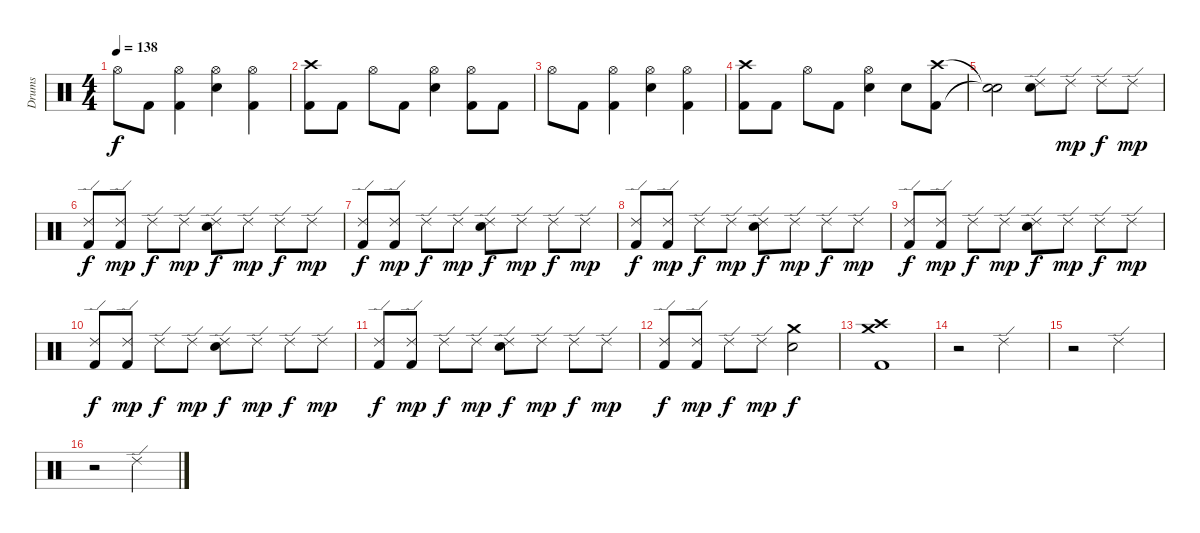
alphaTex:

\track ("Drums" "Drums") {instrument percussion}
\staff {score}
\articulation defaults
\ts (4 4)
\tempo 138
\clef neutral
\ks c "Hi-Hat (open)".8{dy f} "Kick (hit) 2".8
("Hi-Hat (open)" "Kick (hit) 2").4 ("Hi-Hat (open)" "Electric Snare (hit)").4 ("Hi-Hat (open)" "Kick (hit) 2").4 |
("Crash high (hit)" "Kick (hit) 2").8 "Kick (hit) 2".8 "Hi-Hat (open)".8 "Kick (hit) 2".8 ("Hi-Hat (open)" "Electric Snare (hit)").4 ("Hi-Hat (open)" "Kick (hit) 2").8 "Kick (hit) 2".8 |
"Hi-Hat (open)".8 "Kick (hit) 2".8 ("Hi-Hat (open)" "Kick (hit) 2").4 ("Hi-Hat (open)" "Electric Snare (hit)").4 ("Hi-Hat (open)" "Kick (hit) 2").4 |
("Crash high (hit)" "Kick (hit) 2").8 "Kick (hit) 2".8 "Hi-Hat (open)".8 "Kick (hit) 2".8 ("Hi-Hat (open)" "Electric Snare (hit)").4 "Electric Snare (hit)".8 ("Crash high (hit)" "Kick (hit) 2").8 |
("Snare (hit)"{t} "Snare (hit)"{t}).2 ("Ride (edge) 2" "Electric Snare (hit)").8 "Ride (edge) 2".8{dy mp} "Ride (edge) 2".8{dy f} "Ride (edge) 2".8{dy mp} |
("Ride (edge) 2" "Kick (hit) 2").8{dy f} ("Ride (edge) 2" "Kick (hit) 2").8{dy mp} "Ride (edge) 2".8{dy f} "Ride (edge) 2".8{dy mp} ("Ride (edge) 2" "Electric Snare (hit)").8{dy f} "Ride (edge) 2".8{dy mp} "Ride (edge) 2".8{dy f} "Ride (edge) 2".8{dy mp} |
("Ride (edge) 2" "Kick (hit) 2").8{dy f} ("Ride (edge) 2" "Kick (hit) 2").8{dy mp} "Ride (edge) 2".8{dy f} "Ride (edge) 2".8{dy mp} ("Ride (edge) 2" "Electric Snare (hit)").8{dy f} "Ride (edge) 2".8{dy mp} "Ride (edge) 2".8{dy f} "Ride (edge) 2".8{dy mp} |
("Ride (edge) 2" "Kick (hit) 2").8{dy f} ("Ride (edge) 2" "Kick (hit) 2").8{dy mp} "Ride (edge) 2".8{dy f} "Ride (edge) 2".8{dy mp} ("Ride (edge) 2" "Electric Snare (hit)").8{dy f} "Ride (edge) 2".8{dy mp} "Ride (edge) 2".8{dy f} "Ride (edge) 2".8{dy mp} |
("Ride (edge) 2" "Kick (hit) 2").8{dy f} ("Ride (edge) 2" "Kick (hit) 2").8{dy mp} "Ride (edge) 2".8{dy f} "Ride (edge) 2".8{dy mp} ("Ride (edge) 2" "Electric Snare (hit)").8{dy f} "Ride (edge) 2".8{dy mp} "Ride (edge) 2".8{dy f} "Ride (edge) 2".8{dy mp} |
("Ride (edge) 2" "Kick (hit) 2").8{dy f} ("Ride (edge) 2" "Kick (hit) 2").8{dy mp} "Ride (edge) 2".8{dy f} "Ride (edge) 2".8{dy mp} ("Ride (edge) 2" "Electric Snare (hit)").8{dy f} "Ride (edge) 2".8{dy mp} "Ride (edge) 2".8{dy f} "Ride (edge) 2".8{dy mp} |
("Ride (edge) 2" "Kick (hit) 2").8{dy f} ("Ride (edge) 2" "Kick (hit) 2").8{dy mp} "Ride (edge) 2".8{dy f} "Ride (edge) 2".8{dy mp} ("Ride (edge) 2" "Electric Snare (hit)").8{dy f} "Ride (edge) 2".8{dy mp} "Ride (edge) 2".8{dy f} "Ride (edge) 2".8{dy mp} |
("Ride (edge) 2" "Kick (hit) 2").8{dy f} ("Ride (edge) 2" "Kick (hit) 2").8{dy mp} "Ride (edge) 2".8{dy f} "Ride (edge) 2".8{dy mp} ("Crash medium (hit)" "Electric Snare (hit)").2{dy f} |
("Crash high (hit)" "Crash medium (hit)" "Kick (hit) 2").1 |
r.2 "Ride (edge) 2".2 |
r.2 "Ride (edge) 2".2 |
r.2 "Ride (edge) 2".2
